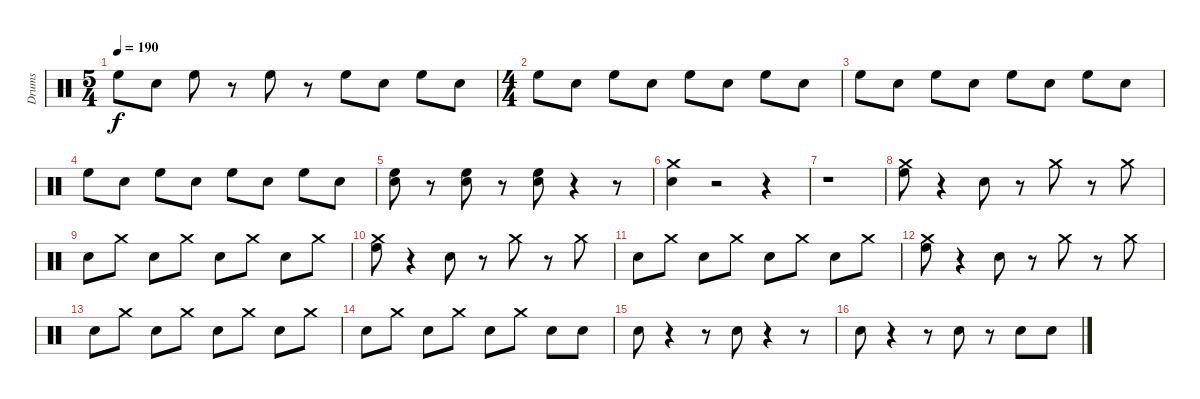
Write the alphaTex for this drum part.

\track ("Drums" "Drums") {instrument percussion}
\staff {score}
\articulation defaults
\ts (5 4)
\tempo 190
\clef neutral
\ks c "High Floor Tom (hit)".8{dy f} "Electric Snare (hit)".8 "High Floor Tom (hit)".8
r.8 "High Floor Tom (hit)".8 r.8 "High Floor Tom (hit)".8 "Electric Snare (hit)".8 "High Floor Tom (hit)".8 "Electric Snare (hit)".8 |
\ts (4 4)
"High Floor Tom (hit)".8 "Electric Snare (hit)".8 "High Floor Tom (hit)".8 "Electric Snare (hit)".8 "High Floor Tom (hit)".8 "Electric Snare (hit)".8 "High Floor Tom (hit)".8 "Electric Snare (hit)".8 |
"High Floor Tom (hit)".8 "Electric Snare (hit)".8 "High Floor Tom (hit)".8 "Electric Snare (hit)".8 "High Floor Tom (hit)".8 "Electric Snare (hit)".8 "High Floor Tom (hit)".8 "Electric Snare (hit)".8 |
"High Floor Tom (hit)".8 "Electric Snare (hit)".8 "High Floor Tom (hit)".8 "Electric Snare (hit)".8 "High Floor Tom (hit)".8 "Electric Snare (hit)".8 "High Floor Tom (hit)".8 "Electric Snare (hit)".8 |
("High Floor Tom (hit)" "Electric Snare (hit)").8 r.8 ("High Floor Tom (hit)" "Electric Snare (hit)").8 r.8 ("High Floor Tom (hit)" "Electric Snare (hit)").8 r.4 r.8 |
("Electric Snare (hit)" "Crash medium (hit)").4 r.2 r.4 |
r.1 |
("High Floor Tom (hit)" "Crash medium (hit)").8 r.4 "Electric Snare (hit)".8 r.8 "Crash medium (hit)".8 r.8 "Crash medium (hit)".8 |
"Electric Snare (hit)".8 "Crash medium (hit)".8 "Electric Snare (hit)".8 "Crash medium (hit)".8 "Electric Snare (hit)".8 "Crash medium (hit)".8 "Electric Snare (hit)".8 "Crash medium (hit)".8 |
("High Floor Tom (hit)" "Crash medium (hit)").8 r.4 "Electric Snare (hit)".8 r.8 "Crash medium (hit)".8 r.8 "Crash medium (hit)".8 |
"Electric Snare (hit)".8 "Crash medium (hit)".8 "Electric Snare (hit)".8 "Crash medium (hit)".8 "Electric Snare (hit)".8 "Crash medium (hit)".8 "Electric Snare (hit)".8 "Crash medium (hit)".8 |
("High Floor Tom (hit)" "Crash medium (hit)").8 r.4 "Electric Snare (hit)".8 r.8 "Crash medium (hit)".8 r.8 "Crash medium (hit)".8 |
"Electric Snare (hit)".8 "Crash medium (hit)".8 "Electric Snare (hit)".8 "Crash medium (hit)".8 "Electric Snare (hit)".8 "Crash medium (hit)".8 "Electric Snare (hit)".8 "Crash medium (hit)".8 |
"Electric Snare (hit)".8 "Crash medium (hit)".8 "Electric Snare (hit)".8 "Crash medium (hit)".8 "Electric Snare (hit)".8 "Crash medium (hit)".8 "Electric Snare (hit)".8 "Electric Snare (hit)".8 |
"Electric Snare (hit)".8 r.4 r.8 "Electric Snare (hit)".8 r.4 r.8 |
"Electric Snare (hit)".8 r.4 r.8 "Electric Snare (hit)".8 r.8 "Electric Snare (hit)".8 "Electric Snare (hit)".8
